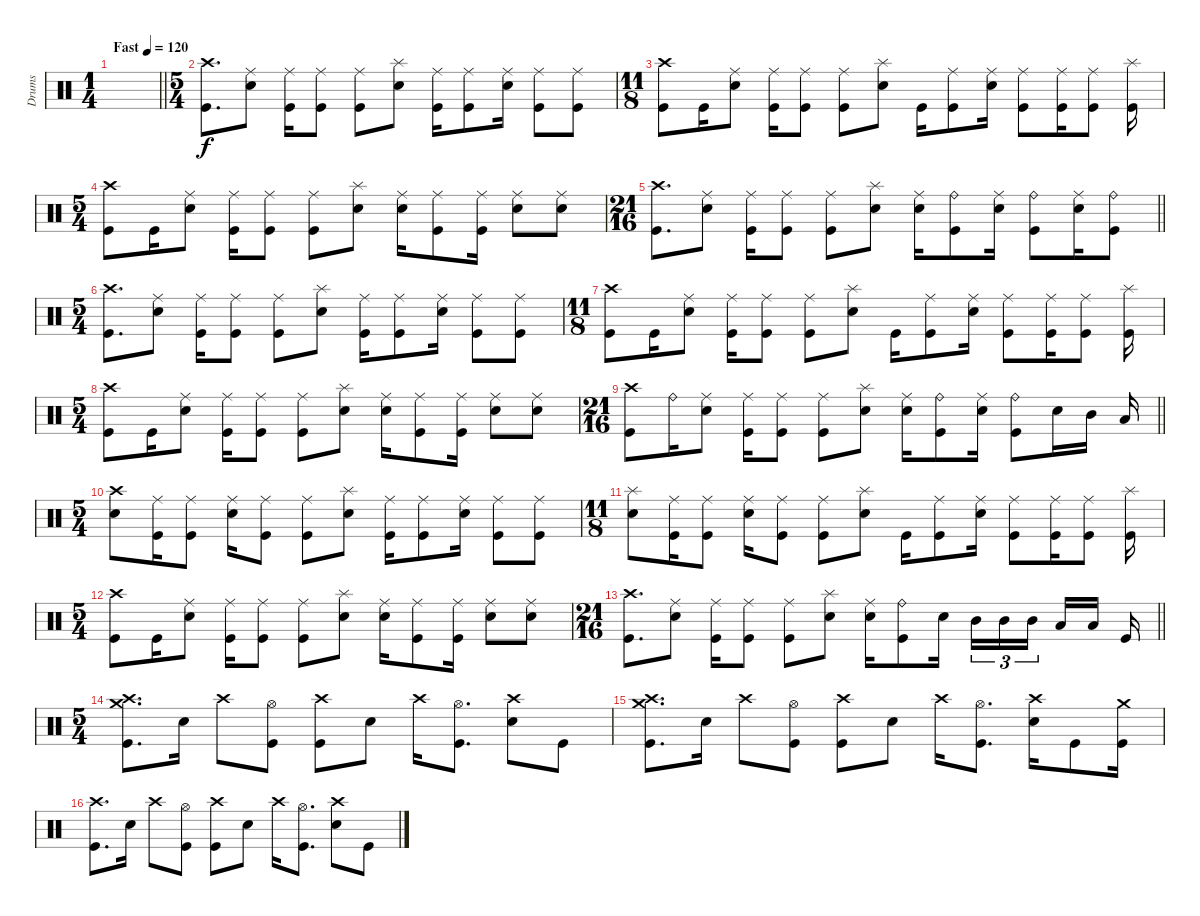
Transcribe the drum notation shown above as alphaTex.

\track ("Drums" "Drums") {instrument percussion}
\staff
\articulation defaults
\ts (1 4)
\tempo (120 "Fast")
\clef neutral
\barLineRight lightlight
\ks c
|
\ts (5 4)
("Crash high (hit)" "Kick (hit)").8{d} ("Ride (middle)" "Electric Snare (hit)").8 ("Ride (middle)" "Kick (hit)").16 ("Ride (middle)" "Kick (hit)").8 ("Ride (middle)" "Kick (hit)").8 ("Splash (hit)" "Electric Snare (hit)").8 ("Ride (middle)" "Kick (hit)").16 ("Ride (middle)" "Kick (hit)").8 ("Ride (middle)" "Electric Snare (hit)").16 ("Ride (middle)" "Kick (hit)").8 ("Ride (middle)" "Kick (hit)").8 |
\ts (11 8)
("Crash high (hit)" "Kick (hit)").8 "Kick (hit)".16 ("Ride (middle)" "Electric Snare (hit)").8 ("Ride (middle)" "Kick (hit)").16 ("Ride (middle)" "Kick (hit)").8 ("Ride (middle)" "Kick (hit)").8 ("Splash (hit)" "Electric Snare (hit)").8 "Kick (hit)".16 ("Ride (middle)" "Kick (hit)").8 ("Ride (middle)" "Electric Snare (hit)").16 ("Ride (middle)" "Kick (hit)").8 ("Ride (middle)" "Kick (hit)").16 ("Ride (middle)" "Kick (hit)").8 ("Splash (hit)" "Kick (hit)").16 |
\ts (5 4)
("Crash high (hit)" "Kick (hit)").8 "Kick (hit)".16 ("Ride (middle)" "Electric Snare (hit)").8 ("Ride (middle)" "Kick (hit)").16 ("Ride (middle)" "Kick (hit)").8 ("Ride (middle)" "Kick (hit)").8 ("Splash (hit)" "Electric Snare (hit)").8 ("Ride (middle)" "Electric Snare (hit)").16 ("Ride (middle)" "Kick (hit)").8 ("Ride (middle)" "Kick (hit)").16 ("Ride (middle)" "Electric Snare (hit)").8 ("Ride (middle)" "Electric Snare (hit)").8 |
\ts (21 16)
\barLineRight lightlight
("Crash high (hit)" "Kick (hit)").8{d} ("Ride (middle)" "Electric Snare (hit)").8 ("Ride (middle)" "Kick (hit)").16 ("Ride (middle)" "Kick (hit)").8 ("Ride (middle)" "Kick (hit)").8 ("Splash (hit)" "Electric Snare (hit)").8 ("Ride (middle)" "Electric Snare (hit)").16 ("Ride (bell)" "Kick (hit)").8 ("Ride (middle)" "Electric Snare (hit)").16 ("Ride (bell)" "Kick (hit)").8 ("Ride (middle)" "Electric Snare (hit)").16 ("Ride (bell)" "Kick (hit)").8 |
\ts (5 4)
("Crash high (hit)" "Kick (hit)").8{d} ("Ride (middle)" "Electric Snare (hit)").8 ("Ride (middle)" "Kick (hit)").16 ("Ride (middle)" "Kick (hit)").8 ("Ride (middle)" "Kick (hit)").8 ("Splash (hit)" "Electric Snare (hit)").8 ("Ride (middle)" "Kick (hit)").16 ("Ride (middle)" "Kick (hit)").8 ("Ride (middle)" "Electric Snare (hit)").16 ("Ride (middle)" "Kick (hit)").8 ("Ride (middle)" "Kick (hit)").8 |
\ts (11 8)
("Crash high (hit)" "Kick (hit)").8 "Kick (hit)".16 ("Ride (middle)" "Electric Snare (hit)").8 ("Ride (middle)" "Kick (hit)").16 ("Ride (middle)" "Kick (hit)").8 ("Ride (middle)" "Kick (hit)").8 ("Splash (hit)" "Electric Snare (hit)").8 "Kick (hit)".16 ("Ride (middle)" "Kick (hit)").8 ("Ride (middle)" "Electric Snare (hit)").16 ("Ride (middle)" "Kick (hit)").8 ("Ride (middle)" "Kick (hit)").16 ("Ride (middle)" "Kick (hit)").8 ("Splash (hit)" "Kick (hit)").16 |
\ts (5 4)
("Crash high (hit)" "Kick (hit)").8 "Kick (hit)".16 ("Ride (middle)" "Electric Snare (hit)").8 ("Ride (middle)" "Kick (hit)").16 ("Ride (middle)" "Kick (hit)").8 ("Ride (middle)" "Kick (hit)").8 ("Splash (hit)" "Electric Snare (hit)").8 ("Ride (middle)" "Electric Snare (hit)").16 ("Ride (middle)" "Kick (hit)").8 ("Ride (middle)" "Kick (hit)").16 ("Ride (middle)" "Electric Snare (hit)").8 ("Ride (middle)" "Electric Snare (hit)").8 |
\ts (21 16)
\barLineRight lightlight
("Crash high (hit)" "Kick (hit)").8 "Ride (bell)".16 ("Ride (middle)" "Electric Snare (hit)").8 ("Ride (middle)" "Kick (hit)").16 ("Ride (middle)" "Kick (hit)").8 ("Ride (middle)" "Kick (hit)").8 ("Splash (hit)" "Electric Snare (hit)").8 ("Ride (middle)" "Electric Snare (hit)").16 ("Ride (bell)" "Kick (hit)").8 ("Ride (middle)" "Electric Snare (hit)").16 ("Ride (bell)" "Kick (hit)").8 "Electric Snare (hit)".16 "Mid Tom (hit)".16 "Low Tom (hit)".16 |
\ts (5 4)
("Crash high (hit)" "Electric Snare (hit)").8 ("Ride (middle)" "Kick (hit)").16 ("Ride (middle)" "Kick (hit)").8 ("Ride (middle)" "Electric Snare (hit)").16 ("Ride (middle)" "Kick (hit)").8 ("Ride (middle)" "Kick (hit)").8 ("Splash (hit)" "Electric Snare (hit)").8 ("Ride (middle)" "Kick (hit)").16 ("Ride (middle)" "Kick (hit)").8 ("Ride (middle)" "Electric Snare (hit)").16 ("Ride (middle)" "Kick (hit)").8 ("Ride (middle)" "Kick (hit)").8 |
\ts (11 8)
("Splash (hit)" "Electric Snare (hit)").8 ("Ride (middle)" "Kick (hit)").16 ("Ride (middle)" "Kick (hit)").8 ("Ride (middle)" "Electric Snare (hit)").16 ("Ride (middle)" "Kick (hit)").8 ("Ride (middle)" "Kick (hit)").8 ("Splash (hit)" "Electric Snare (hit)").8 "Kick (hit)".16 ("Ride (middle)" "Kick (hit)").8 ("Ride (middle)" "Electric Snare (hit)").16 ("Ride (middle)" "Kick (hit)").8 ("Ride (middle)" "Kick (hit)").16 ("Ride (middle)" "Kick (hit)").8 ("Splash (hit)" "Kick (hit)").16 |
\ts (5 4)
("Crash high (hit)" "Kick (hit)").8 "Kick (hit)".16 ("Ride (middle)" "Electric Snare (hit)").8 ("Ride (middle)" "Kick (hit)").16 ("Ride (middle)" "Kick (hit)").8 ("Ride (middle)" "Kick (hit)").8 ("Splash (hit)" "Electric Snare (hit)").8 ("Ride (middle)" "Electric Snare (hit)").16 ("Ride (middle)" "Kick (hit)").8 ("Ride (middle)" "Kick (hit)").16 ("Ride (middle)" "Electric Snare (hit)").8 ("Ride (middle)" "Electric Snare (hit)").8 |
\ts (21 16)
\barLineRight lightlight
("Crash high (hit)" "Kick (hit)").8{d} ("Ride (middle)" "Electric Snare (hit)").8 ("Ride (middle)" "Kick (hit)").16 ("Ride (middle)" "Kick (hit)").8 ("Ride (middle)" "Kick (hit)").8 ("Splash (hit)" "Electric Snare (hit)").8 ("Ride (middle)" "Electric Snare (hit)").16 ("Ride (bell)" "Kick (hit)").8 "Electric Snare (hit)".16{beam splitsecondary} "Mid Tom (hit)".16{tu (3 2)} "Mid Tom (hit)".16{tu (3 2)} "Mid Tom (hit)".16{tu (3 2)} "Low Tom (hit)".16 "Low Tom (hit)".16 "Kick (hit)".16 |
\ts (5 4)
\section ("" "")
("Crash high (hit)" "Crash medium (hit)" "Kick (hit)").8{d} "Electric Snare (hit)".16 "Crash high (hit)".8 ("Hi-Hat (open)" "Kick (hit)").8 ("Crash high (hit)" "Kick (hit)").8 "Electric Snare (hit)".8 "Crash high (hit)".16 ("Hi-Hat (open)" "Kick (hit)").8{d} ("Crash high (hit)" "Electric Snare (hit)").8 "Kick (hit)".8 |
("Crash high (hit)" "Crash medium (hit)" "Kick (hit)").8{d} "Electric Snare (hit)".16 "Crash high (hit)".8 ("Hi-Hat (open)" "Kick (hit)").8 ("Crash high (hit)" "Kick (hit)").8 "Electric Snare (hit)".8 "Crash high (hit)".16 ("Hi-Hat (open)" "Kick (hit)").8{d} ("Crash high (hit)" "Electric Snare (hit)").16 "Kick (hit)".8 ("Crash medium (hit)" "Kick (hit)").16 |
("Crash high (hit)" "Kick (hit)").8{d} "Electric Snare (hit)".16 "Crash high (hit)".8 ("Hi-Hat (open)" "Kick (hit)").8 ("Crash high (hit)" "Kick (hit)").8 "Electric Snare (hit)".8 "Crash high (hit)".16 ("Hi-Hat (open)" "Kick (hit)").8{d} ("Crash high (hit)" "Electric Snare (hit)").8 "Kick (hit)".8
